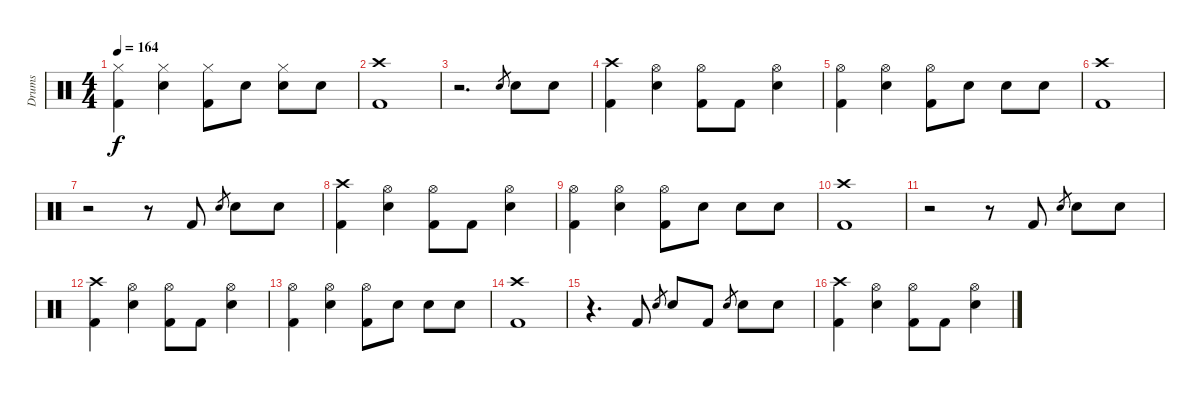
\track ("Drums" "Drums") {instrument percussion}
\staff {score}
\articulation defaults
\ts (4 4)
\tempo 164
\clef neutral
\ks c
("Kick (hit) 2" "Hi-Hat (closed)").4{dy f} ("Snare (hit) 2" "Hi-Hat (closed)").4 ("Kick (hit) 2" "Hi-Hat (closed)").8 "Snare (hit) 2".8 ("Snare (hit) 2" "Hi-Hat (closed)").8 "Snare (hit) 2".8 |
("Kick (hit) 2" "Crash high (hit)").1 |
r.2{d} "Snare (hit) 2".8{gr} "Snare (hit) 2".8 "Snare (hit) 2".8 |
("Kick (hit) 2" "Crash high (hit)").4 ("Snare (hit) 2" "Hi-Hat (open)").4 ("Kick (hit) 2" "Hi-Hat (open)").8 "Kick (hit) 2".8 ("Snare (hit) 2" "Hi-Hat (open)").4 |
("Kick (hit) 2" "Hi-Hat (open)").4 ("Snare (hit) 2" "Hi-Hat (open)").4 ("Kick (hit) 2" "Hi-Hat (open)").8 "Snare (hit) 2".8 "Snare (hit) 2".8 "Snare (hit) 2".8 |
("Kick (hit) 2" "Crash high (hit)").1 |
r.2 r.8 "Kick (hit) 2".8 "Snare (hit) 2".8{gr} "Snare (hit) 2".8 "Snare (hit) 2".8 |
("Kick (hit) 2" "Crash high (hit)").4 ("Snare (hit) 2" "Hi-Hat (open)").4 ("Kick (hit) 2" "Hi-Hat (open)").8 "Kick (hit) 2".8 ("Snare (hit) 2" "Hi-Hat (open)").4 |
("Kick (hit) 2" "Hi-Hat (open)").4 ("Snare (hit) 2" "Hi-Hat (open)").4 ("Kick (hit) 2" "Hi-Hat (open)").8 "Snare (hit) 2".8 "Snare (hit) 2".8 "Snare (hit) 2".8 |
("Kick (hit) 2" "Crash high (hit)").1 |
r.2 r.8 "Kick (hit) 2".8 "Snare (hit) 2".8{gr} "Snare (hit) 2".8 "Snare (hit) 2".8 |
("Kick (hit) 2" "Crash high (hit)").4 ("Snare (hit) 2" "Hi-Hat (open)").4 ("Kick (hit) 2" "Hi-Hat (open)").8 "Kick (hit) 2".8 ("Snare (hit) 2" "Hi-Hat (open)").4 |
("Kick (hit) 2" "Hi-Hat (open)").4 ("Snare (hit) 2" "Hi-Hat (open)").4 ("Kick (hit) 2" "Hi-Hat (open)").8 "Snare (hit) 2".8 "Snare (hit) 2".8 "Snare (hit) 2".8 |
("Kick (hit) 2" "Crash high (hit)").1 |
r.4{d} "Kick (hit) 2".8 "Snare (hit) 2".8{gr} "Snare (hit) 2".8 "Kick (hit) 2".8 "Snare (hit) 2".8{gr} "Snare (hit) 2".8 "Snare (hit) 2".8 |
("Kick (hit) 2" "Crash high (hit)").4 ("Snare (hit) 2" "Hi-Hat (open)").4 ("Kick (hit) 2" "Hi-Hat (open)").8 "Kick (hit) 2".8 ("Snare (hit) 2" "Hi-Hat (open)").4
